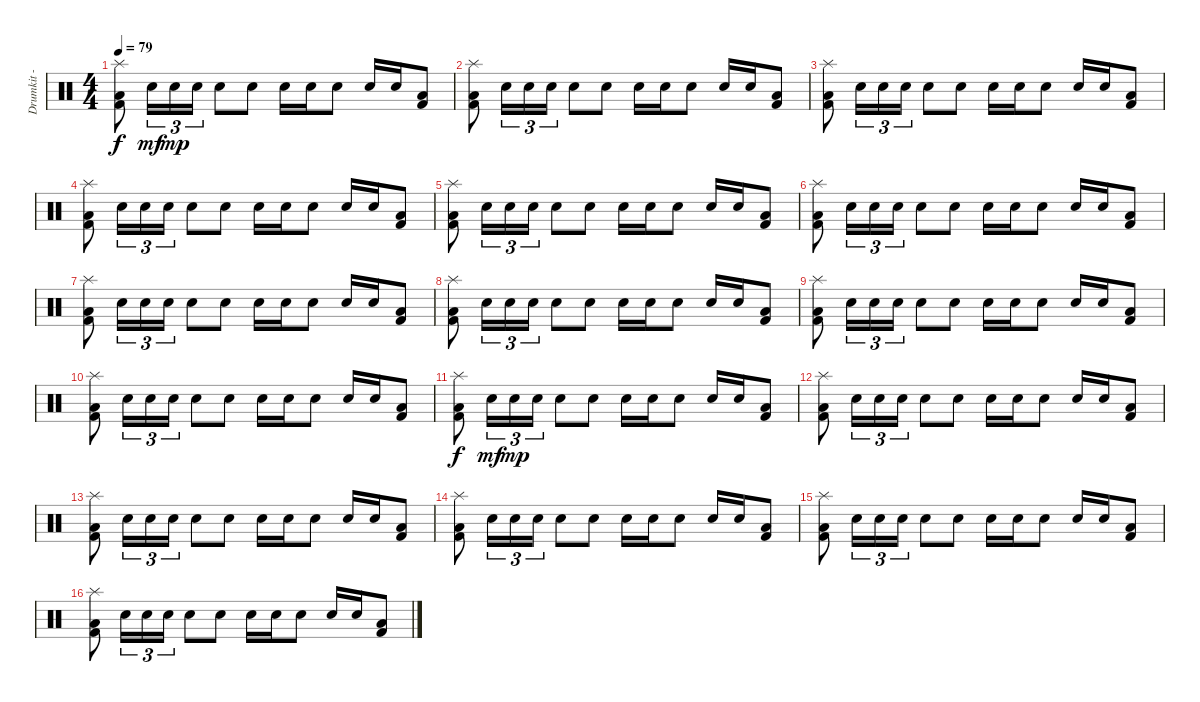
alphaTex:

\track ("Drumkit - Dom" "Drumkit - ") {instrument percussion}
\staff {score}
\articulation defaults
\ts (4 4)
\tempo 79
\clef neutral
\ks c
("Splash (hit)" "Kick (hit) 2" "Low Floor Tom (hit)").8{dy f} "Snare (hit) 2".16{tu (3 2) dy mf} "Snare (hit) 2".16{tu (3 2) dy mp} "Snare (hit) 2".16{tu (3 2)} "Snare (hit) 2".8 "Snare (hit) 2".8 "Snare (hit) 2".16 "Snare (hit) 2".16 "Snare (hit) 2".8 "Snare (hit) 2".16 "Snare (hit) 2".16 ("Kick (hit) 2" "Low Tom (hit)").8 |
("Splash (hit)" "Kick (hit) 2" "Low Floor Tom (hit)").8 "Snare (hit) 2".16{tu (3 2)} "Snare (hit) 2".16{tu (3 2)} "Snare (hit) 2".16{tu (3 2)} "Snare (hit) 2".8 "Snare (hit) 2".8 "Snare (hit) 2".16 "Snare (hit) 2".16 "Snare (hit) 2".8 "Snare (hit) 2".16 "Snare (hit) 2".16 ("Kick (hit) 2" "Low Tom (hit)").8 |
("Splash (hit)" "Kick (hit) 2" "Low Floor Tom (hit)").8 "Snare (hit) 2".16{tu (3 2)} "Snare (hit) 2".16{tu (3 2)} "Snare (hit) 2".16{tu (3 2)} "Snare (hit) 2".8 "Snare (hit) 2".8 "Snare (hit) 2".16 "Snare (hit) 2".16 "Snare (hit) 2".8 "Snare (hit) 2".16 "Snare (hit) 2".16 ("Kick (hit) 2" "Low Tom (hit)").8 |
("Splash (hit)" "Kick (hit) 2" "Low Floor Tom (hit)").8 "Snare (hit) 2".16{tu (3 2)} "Snare (hit) 2".16{tu (3 2)} "Snare (hit) 2".16{tu (3 2)} "Snare (hit) 2".8 "Snare (hit) 2".8 "Snare (hit) 2".16 "Snare (hit) 2".16 "Snare (hit) 2".8 "Snare (hit) 2".16 "Snare (hit) 2".16 ("Kick (hit) 2" "Low Tom (hit)").8 |
("Splash (hit)" "Kick (hit) 2" "Low Floor Tom (hit)").8 "Snare (hit) 2".16{tu (3 2)} "Snare (hit) 2".16{tu (3 2)} "Snare (hit) 2".16{tu (3 2)} "Snare (hit) 2".8 "Snare (hit) 2".8 "Snare (hit) 2".16 "Snare (hit) 2".16 "Snare (hit) 2".8 "Snare (hit) 2".16 "Snare (hit) 2".16 ("Kick (hit) 2" "Low Tom (hit)").8 |
("Splash (hit)" "Kick (hit) 2" "Low Floor Tom (hit)").8 "Snare (hit) 2".16{tu (3 2)} "Snare (hit) 2".16{tu (3 2)} "Snare (hit) 2".16{tu (3 2)} "Snare (hit) 2".8 "Snare (hit) 2".8 "Snare (hit) 2".16 "Snare (hit) 2".16 "Snare (hit) 2".8 "Snare (hit) 2".16 "Snare (hit) 2".16 ("Kick (hit) 2" "Low Tom (hit)").8 |
("Splash (hit)" "Kick (hit) 2" "Low Floor Tom (hit)").8 "Snare (hit) 2".16{tu (3 2)} "Snare (hit) 2".16{tu (3 2)} "Snare (hit) 2".16{tu (3 2)} "Snare (hit) 2".8 "Snare (hit) 2".8 "Snare (hit) 2".16 "Snare (hit) 2".16 "Snare (hit) 2".8 "Snare (hit) 2".16 "Snare (hit) 2".16 ("Kick (hit) 2" "Low Tom (hit)").8 |
("Splash (hit)" "Kick (hit) 2" "Low Floor Tom (hit)").8 "Snare (hit) 2".16{tu (3 2)} "Snare (hit) 2".16{tu (3 2)} "Snare (hit) 2".16{tu (3 2)} "Snare (hit) 2".8 "Snare (hit) 2".8 "Snare (hit) 2".16 "Snare (hit) 2".16 "Snare (hit) 2".8 "Snare (hit) 2".16 "Snare (hit) 2".16 ("Kick (hit) 2" "Low Tom (hit)").8 |
("Splash (hit)" "Kick (hit) 2" "Low Floor Tom (hit)").8 "Snare (hit) 2".16{tu (3 2)} "Snare (hit) 2".16{tu (3 2)} "Snare (hit) 2".16{tu (3 2)} "Snare (hit) 2".8 "Snare (hit) 2".8 "Snare (hit) 2".16 "Snare (hit) 2".16 "Snare (hit) 2".8 "Snare (hit) 2".16 "Snare (hit) 2".16 ("Kick (hit) 2" "Low Tom (hit)").8 |
("Splash (hit)" "Kick (hit) 2" "Low Floor Tom (hit)").8 "Snare (hit) 2".16{tu (3 2)} "Snare (hit) 2".16{tu (3 2)} "Snare (hit) 2".16{tu (3 2)} "Snare (hit) 2".8 "Snare (hit) 2".8 "Snare (hit) 2".16 "Snare (hit) 2".16 "Snare (hit) 2".8 "Snare (hit) 2".16 "Snare (hit) 2".16 ("Kick (hit) 2" "Low Tom (hit)").8 |
("Splash (hit)" "Kick (hit) 2" "Low Floor Tom (hit)").8{dy f} "Snare (hit) 2".16{tu (3 2) dy mf} "Snare (hit) 2".16{tu (3 2) dy mp} "Snare (hit) 2".16{tu (3 2)} "Snare (hit) 2".8 "Snare (hit) 2".8 "Snare (hit) 2".16 "Snare (hit) 2".16 "Snare (hit) 2".8 "Snare (hit) 2".16 "Snare (hit) 2".16 ("Kick (hit) 2" "Low Tom (hit)").8 |
("Splash (hit)" "Kick (hit) 2" "Low Floor Tom (hit)").8 "Snare (hit) 2".16{tu (3 2)} "Snare (hit) 2".16{tu (3 2)} "Snare (hit) 2".16{tu (3 2)} "Snare (hit) 2".8 "Snare (hit) 2".8 "Snare (hit) 2".16 "Snare (hit) 2".16 "Snare (hit) 2".8 "Snare (hit) 2".16 "Snare (hit) 2".16 ("Kick (hit) 2" "Low Tom (hit)").8 |
("Splash (hit)" "Kick (hit) 2" "Low Floor Tom (hit)").8 "Snare (hit) 2".16{tu (3 2)} "Snare (hit) 2".16{tu (3 2)} "Snare (hit) 2".16{tu (3 2)} "Snare (hit) 2".8 "Snare (hit) 2".8 "Snare (hit) 2".16 "Snare (hit) 2".16 "Snare (hit) 2".8 "Snare (hit) 2".16 "Snare (hit) 2".16 ("Kick (hit) 2" "Low Tom (hit)").8 |
("Splash (hit)" "Kick (hit) 2" "Low Floor Tom (hit)").8 "Snare (hit) 2".16{tu (3 2)} "Snare (hit) 2".16{tu (3 2)} "Snare (hit) 2".16{tu (3 2)} "Snare (hit) 2".8 "Snare (hit) 2".8 "Snare (hit) 2".16 "Snare (hit) 2".16 "Snare (hit) 2".8 "Snare (hit) 2".16 "Snare (hit) 2".16 ("Kick (hit) 2" "Low Tom (hit)").8 |
("Splash (hit)" "Kick (hit) 2" "Low Floor Tom (hit)").8 "Snare (hit) 2".16{tu (3 2)} "Snare (hit) 2".16{tu (3 2)} "Snare (hit) 2".16{tu (3 2)} "Snare (hit) 2".8 "Snare (hit) 2".8 "Snare (hit) 2".16 "Snare (hit) 2".16 "Snare (hit) 2".8 "Snare (hit) 2".16 "Snare (hit) 2".16 ("Kick (hit) 2" "Low Tom (hit)").8 |
("Splash (hit)" "Kick (hit) 2" "Low Floor Tom (hit)").8 "Snare (hit) 2".16{tu (3 2)} "Snare (hit) 2".16{tu (3 2)} "Snare (hit) 2".16{tu (3 2)} "Snare (hit) 2".8 "Snare (hit) 2".8 "Snare (hit) 2".16 "Snare (hit) 2".16 "Snare (hit) 2".8 "Snare (hit) 2".16 "Snare (hit) 2".16 ("Kick (hit) 2" "Low Tom (hit)").8
